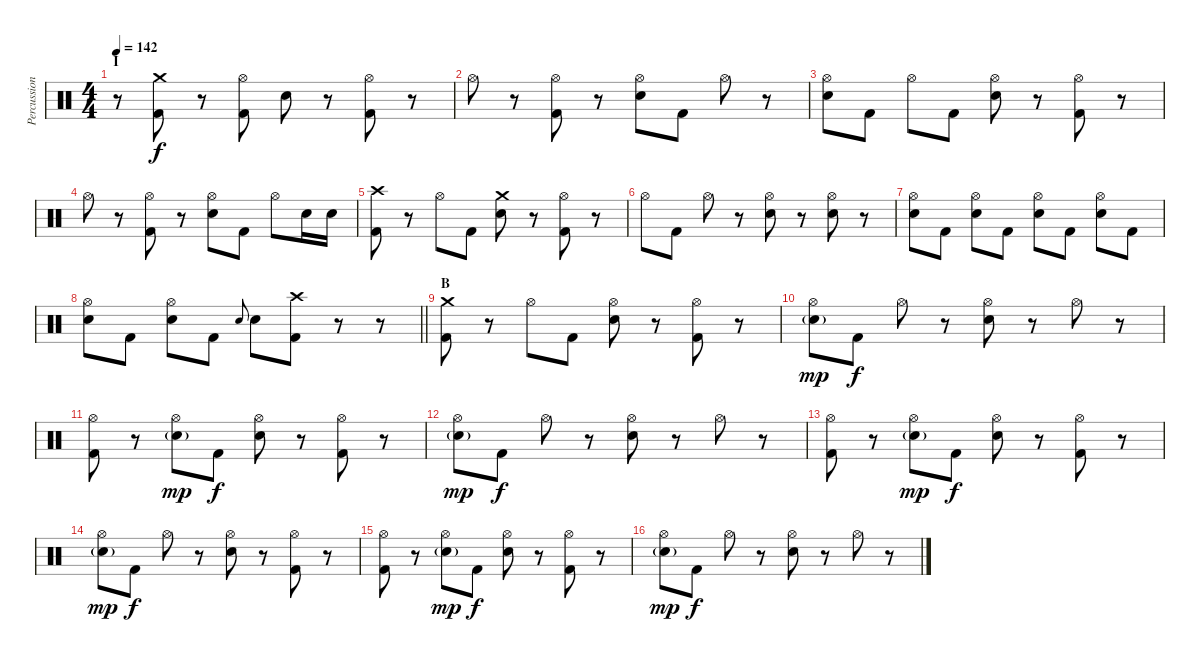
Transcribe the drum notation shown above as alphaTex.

\track ("Percussion" "Percussion") {instrument percussion}
\staff {score}
\articulation defaults
\ts (4 4)
\section ("" "I")
\tempo 142
\clef neutral
\ks c
r.8{dy mp} ("Crash medium (hit)" "Kick (hit) 2").8{dy f} r.8 ("Hi-Hat (open)" "Kick (hit) 2").8 "Electric Snare (hit)".8 r.8 ("Hi-Hat (open)" "Kick (hit) 2").8 r.8 |
"Hi-Hat (open)".8 r.8 ("Hi-Hat (open)" "Kick (hit) 2").8 r.8 ("Hi-Hat (open)" "Electric Snare (hit)").8 "Kick (hit) 2".8 "Hi-Hat (open)".8 r.8 |
("Hi-Hat (open)" "Electric Snare (hit)").8 "Kick (hit) 2".8 "Hi-Hat (open)".8 "Kick (hit) 2".8 ("Hi-Hat (open)" "Electric Snare (hit)").8 r.8 ("Hi-Hat (open)" "Kick (hit) 2").8 r.8 |
"Hi-Hat (open)".8 r.8 ("Hi-Hat (open)" "Kick (hit) 2").8 r.8 ("Hi-Hat (open)" "Electric Snare (hit)").8 "Kick (hit) 2".8 "Hi-Hat (open)".8 "Electric Snare (hit)".16 "Electric Snare (hit)".16 |
("Crash high (hit)" "Kick (hit) 2").8 r.8 "Hi-Hat (open)".8 "Kick (hit) 2".8 ("Crash medium (hit)" "Electric Snare (hit)").8 r.8 ("Hi-Hat (open)" "Kick (hit) 2").8 r.8 |
"Hi-Hat (open)".8 "Kick (hit) 2".8 "Hi-Hat (open)".8 r.8 ("Hi-Hat (open)" "Electric Snare (hit)").8 r.8 ("Hi-Hat (open)" "Electric Snare (hit)").8 r.8 |
("Hi-Hat (open)" "Electric Snare (hit)").8 "Kick (hit) 2".8 ("Hi-Hat (open)" "Electric Snare (hit)").8 "Kick (hit) 2".8 ("Hi-Hat (open)" "Electric Snare (hit)").8 "Kick (hit) 2".8 ("Hi-Hat (open)" "Electric Snare (hit)").8 "Kick (hit) 2".8 |
\barLineRight lightlight
("Hi-Hat (open)" "Electric Snare (hit)").8 "Kick (hit) 2".8 ("Hi-Hat (open)" "Electric Snare (hit)").8 "Kick (hit) 2".8 "Electric Snare (hit)".8{gr onbeat} "Electric Snare (hit)".8 ("Crash high (hit)" "Kick (hit) 2").8 r.8 r.8 |
\section ("" "B")
("Crash medium (hit)" "Kick (hit) 2").8 r.8 "Hi-Hat (open)".8 "Kick (hit) 2".8 ("Hi-Hat (open)" "Electric Snare (hit)").8 r.8 ("Hi-Hat (open)" "Kick (hit) 2").8 r.8 |
("Hi-Hat (open)" "Electric Snare (hit)"{g}).8{dy mp} "Kick (hit) 2".8{dy f} "Hi-Hat (open)".8 r.8 ("Hi-Hat (open)" "Electric Snare (hit)").8 r.8 "Hi-Hat (open)".8 r.8 |
("Hi-Hat (open)" "Kick (hit) 2").8 r.8 ("Hi-Hat (open)" "Electric Snare (hit)"{g}).8{dy mp} "Kick (hit) 2".8{dy f} ("Hi-Hat (open)" "Electric Snare (hit)").8 r.8 ("Hi-Hat (open)" "Kick (hit) 2").8 r.8 |
("Hi-Hat (open)" "Electric Snare (hit)"{g}).8{dy mp} "Kick (hit) 2".8{dy f} "Hi-Hat (open)".8 r.8 ("Hi-Hat (open)" "Electric Snare (hit)").8 r.8 "Hi-Hat (open)".8 r.8 |
("Hi-Hat (open)" "Kick (hit) 2").8 r.8 ("Hi-Hat (open)" "Electric Snare (hit)"{g}).8{dy mp} "Kick (hit) 2".8{dy f} ("Hi-Hat (open)" "Electric Snare (hit)").8 r.8 ("Hi-Hat (open)" "Kick (hit) 2").8 r.8 |
("Hi-Hat (open)" "Electric Snare (hit)"{g}).8{dy mp} "Kick (hit) 2".8{dy f} "Hi-Hat (open)".8 r.8 ("Hi-Hat (open)" "Electric Snare (hit)").8 r.8 ("Hi-Hat (open)" "Kick (hit) 2").8 r.8 |
("Hi-Hat (open)" "Kick (hit) 2").8 r.8 ("Hi-Hat (open)" "Electric Snare (hit)"{g}).8{dy mp} "Kick (hit) 2".8{dy f} ("Hi-Hat (open)" "Electric Snare (hit)").8 r.8 ("Hi-Hat (open)" "Kick (hit) 2").8 r.8 |
("Hi-Hat (open)" "Electric Snare (hit)"{g}).8{dy mp} "Kick (hit) 2".8{dy f} "Hi-Hat (open)".8 r.8 ("Hi-Hat (open)" "Electric Snare (hit)").8 r.8 "Hi-Hat (open)".8 r.8
